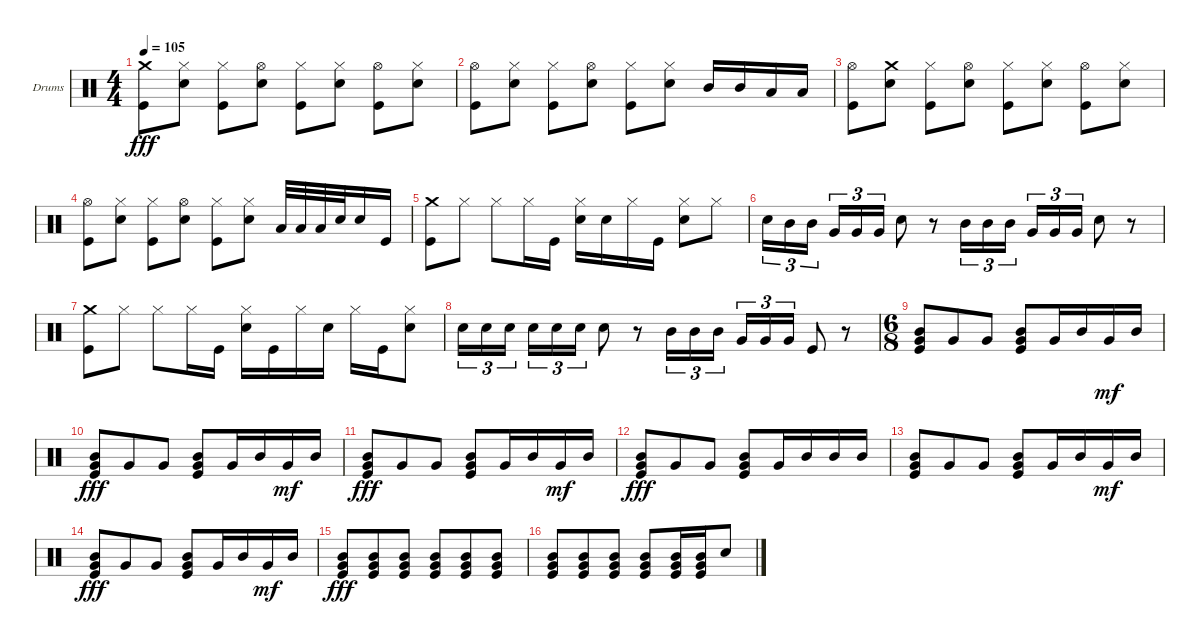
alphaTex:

\bracketExtendMode groupsimilarinstruments
\firstSystemTrackNameOrientation horizontal
\otherSystemsTrackNameOrientation horizontal
\track ("Andrew Forsman" "Drums") {instrument percussion}
\staff {score}
\articulation defaults
\ts (4 4)
\tempo 105
\clef neutral
\scale
0.333333
\ks c
("Kick (hit)" "Crash medium (hit)").8{dy fff} ("Snare (hit) 2" "Hi-Hat (closed)").8 ("Kick (hit)" "Hi-Hat (closed)").8 ("Snare (hit) 2" "Hi-Hat (open)").8 ("Kick (hit)" "Hi-Hat (closed)").8 ("Snare (hit) 2" "Hi-Hat (closed)").8 ("Kick (hit)" "Hi-Hat (open)").8 ("Snare (hit) 2" "Hi-Hat (closed)").8 |
\scale
0.333333 ("Kick (hit)" "Hi-Hat (open)").8 ("Snare (hit) 2" "Hi-Hat (closed)").8 ("Kick (hit)" "Hi-Hat (closed)").8 ("Snare (hit) 2" "Hi-Hat (open)").8 ("Kick (hit)" "Hi-Hat (closed)").8 ("Snare (hit) 2" "Hi-Hat (closed)").8 "Mid Tom (hit)".16 "Mid Tom (hit)".16 "Low Tom (hit)".16 "Low Tom (hit)".16 |
\scale
0.333333 ("Kick (hit)" "Hi-Hat (open)").8 ("Snare (hit) 2" "Crash medium (hit)").8 ("Kick (hit)" "Hi-Hat (closed)").8 ("Snare (hit) 2" "Hi-Hat (open)").8 ("Kick (hit)" "Hi-Hat (closed)").8 ("Snare (hit) 2" "Hi-Hat (closed)").8 ("Kick (hit)" "Hi-Hat (open)").8 ("Snare (hit) 2" "Hi-Hat (closed)").8 |
\scale
0.333333 ("Kick (hit)" "Hi-Hat (open)").8 ("Snare (hit) 2" "Hi-Hat (closed)").8 ("Kick (hit)" "Hi-Hat (closed)").8 ("Snare (hit) 2" "Hi-Hat (open)").8 ("Kick (hit)" "Hi-Hat (closed)").8 ("Snare (hit) 2" "Hi-Hat (closed)").8 "Low Tom (hit)".32 "Low Tom (hit)".32 "Low Tom (hit)".32 "Snare (hit) 2".32 "Snare (hit) 2".16 "Kick (hit)".16 |
\scale
0.333333 ("Kick (hit)" "Crash medium (hit)").8 "Hi-Hat (closed)".8 "Hi-Hat (closed)".8 "Hi-Hat (closed)".16 "Kick (hit)".16 ("Snare (hit) 2" "Hi-Hat (closed)").16 "Snare (hit) 2".16 "Hi-Hat (closed)".16 "Kick (hit)".16 ("Snare (hit) 2" "Hi-Hat (closed)").8 "Hi-Hat (closed)".8 |
\scale
0.333333 "Snare (hit) 2".16{tu (3 2)} "Mid Tom (hit)".16{tu (3 2)} "Mid Tom (hit)".16{tu (3 2)} "Very Low Tom (hit)".16{tu (3 2)} "Very Low Tom (hit)".16{tu (3 2)} "Very Low Tom (hit)".16{tu (3 2)} "Snare (hit) 2".8 r.8 "Mid Tom (hit)".16{tu (3 2)} "Mid Tom (hit)".16{tu (3 2)} "Mid Tom (hit)".16{tu (3 2)} "Very Low Tom (hit)".16{tu (3 2)} "Very Low Tom (hit)".16{tu (3 2)} "Very Low Tom (hit)".16{tu (3 2)} "Snare (hit) 2".8 r.8 |
\scale
0.333333 ("Kick (hit)" "Crash medium (hit)").8 "Hi-Hat (closed)".8 "Hi-Hat (closed)".8 "Hi-Hat (closed)".16 "Kick (hit)".16 ("Snare (hit) 2" "Hi-Hat (closed)").16 "Kick (hit)".16 "Hi-Hat (closed)".16 "Snare (hit) 2".16 "Hi-Hat (closed)".16 "Kick (hit)".16 ("Snare (hit) 2" "Hi-Hat (closed)").8 |
\scale
0.333333 "Snare (hit) 2".16{tu (3 2)} "Snare (hit) 2".16{tu (3 2)} "Snare (hit) 2".16{tu (3 2)} "Snare (hit) 2".16{tu (3 2)} "Snare (hit) 2".16{tu (3 2)} "Snare (hit) 2".16{tu (3 2)} "Snare (hit) 2".8 r.8 "Mid Tom (hit)".16{tu (3 2)} "Mid Tom (hit)".16{tu (3 2)} "Mid Tom (hit)".16{tu (3 2)} "Very Low Tom (hit)".16{tu (3 2)} "Very Low Tom (hit)".16{tu (3 2)} "Very Low Tom (hit)".16{tu (3 2)} "Kick (hit)".8 r.8 |
\ts (6 8)
\beaming (8 3 3)
\scale
0.474178 ("Very Low Tom (hit)" "Mid Tom (hit)" "Kick (hit)").8 "Very Low Tom (hit)".8 "Very Low Tom (hit)".8 ("Very Low Tom (hit)" "Mid Tom (hit)" "Kick (hit)").8 "Very Low Tom (hit)".16 "Mid Tom (hit)".16 "Very Low Tom (hit)".16{dy mf} "Mid Tom (hit)".16 |
\scale
0.262911 ("Very Low Tom (hit)" "Mid Tom (hit)" "Kick (hit)").8{dy fff} "Very Low Tom (hit)".8 "Very Low Tom (hit)".8 ("Very Low Tom (hit)" "Mid Tom (hit)" "Kick (hit)").8 "Very Low Tom (hit)".16 "Mid Tom (hit)".16 "Very Low Tom (hit)".16{dy mf} "Mid Tom (hit)".16 |
\scale
0.262911 ("Very Low Tom (hit)" "Mid Tom (hit)" "Kick (hit)").8{dy fff} "Very Low Tom (hit)".8 "Very Low Tom (hit)".8 ("Very Low Tom (hit)" "Mid Tom (hit)" "Kick (hit)").8 "Very Low Tom (hit)".16 "Mid Tom (hit)".16 "Very Low Tom (hit)".16{dy mf} "Mid Tom (hit)".16 |
\scale
0.333333 ("Very Low Tom (hit)" "Mid Tom (hit)" "Kick (hit)").8{dy fff} "Very Low Tom (hit)".8 "Very Low Tom (hit)".8 ("Very Low Tom (hit)" "Mid Tom (hit)" "Kick (hit)").8 "Very Low Tom (hit)".16 "Mid Tom (hit)".16 "Mid Tom (hit)".16 "Mid Tom (hit)".16 |
\scale
0.333333 ("Very Low Tom (hit)" "Mid Tom (hit)" "Kick (hit)").8 "Very Low Tom (hit)".8 "Very Low Tom (hit)".8 ("Very Low Tom (hit)" "Mid Tom (hit)" "Kick (hit)").8 "Very Low Tom (hit)".16 "Mid Tom (hit)".16 "Very Low Tom (hit)".16{dy mf} "Mid Tom (hit)".16 |
\scale
0.333333 ("Very Low Tom (hit)" "Mid Tom (hit)" "Kick (hit)").8{dy fff} "Very Low Tom (hit)".8 "Very Low Tom (hit)".8 ("Very Low Tom (hit)" "Mid Tom (hit)" "Kick (hit)").8 "Very Low Tom (hit)".16 "Mid Tom (hit)".16 "Very Low Tom (hit)".16{dy mf} "Mid Tom (hit)".16 |
\scale
0.333333 ("Kick (hit)" "Mid Tom (hit)" "Very Low Tom (hit)").8{dy fff} ("Very Low Tom (hit)" "Mid Tom (hit)" "Kick (hit)").8 ("Kick (hit)" "Very Low Tom (hit)" "Mid Tom (hit)").8 ("Mid Tom (hit)" "Very Low Tom (hit)" "Kick (hit)").8 ("Kick (hit)" "Very Low Tom (hit)" "Mid Tom (hit)").8 ("Mid Tom (hit)" "Very Low Tom (hit)" "Kick (hit)").8 |
\scale
0.333333 ("Kick (hit)" "Mid Tom (hit)" "Very Low Tom (hit)").8 ("Very Low Tom (hit)" "Mid Tom (hit)" "Kick (hit)").8 ("Kick (hit)" "Very Low Tom (hit)" "Mid Tom (hit)").8 ("Mid Tom (hit)" "Very Low Tom (hit)" "Kick (hit)").8 ("Kick (hit)" "Very Low Tom (hit)" "Mid Tom (hit)").16 ("Mid Tom (hit)" "Very Low Tom (hit)" "Kick (hit)").16 "Snare (hit) 2".8
